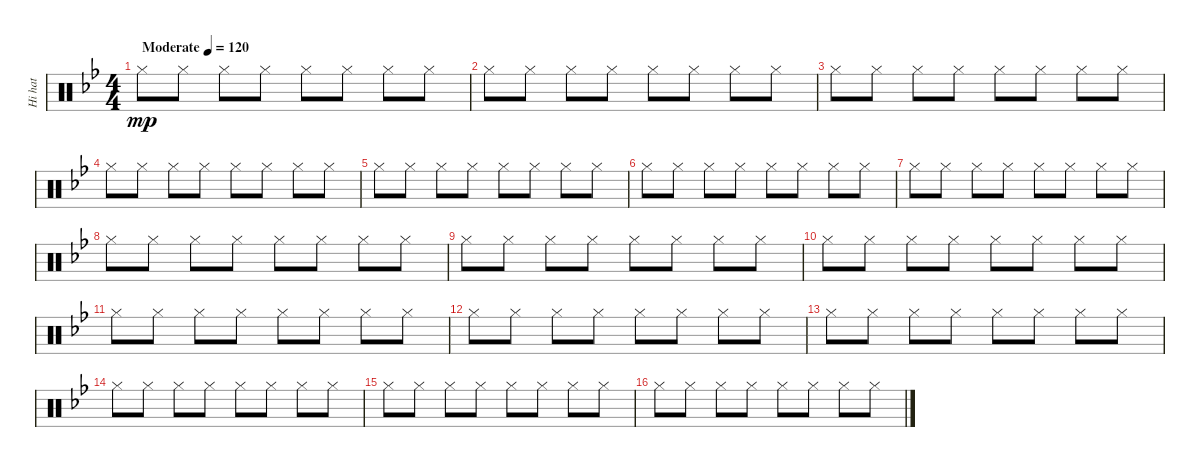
\track ("Hi hat" "Hi hat") {instrument percussion}
\staff {score}
\articulation defaults
\ts (4 4)
\tempo (120 "Moderate")
\clef neutral
\ks bb "Hi-Hat (closed)".8{dy mp} "Hi-Hat (closed)".8 "Hi-Hat (closed)".8 "Hi-Hat (closed)".8 "Hi-Hat (closed)".8 "Hi-Hat (closed)".8 "Hi-Hat (closed)".8 "Hi-Hat (closed)".8
|
"Hi-Hat (closed)".8 "Hi-Hat (closed)".8 "Hi-Hat (closed)".8 "Hi-Hat (closed)".8 "Hi-Hat (closed)".8 "Hi-Hat (closed)".8 "Hi-Hat (closed)".8 "Hi-Hat (closed)".8 |
"Hi-Hat (closed)".8 "Hi-Hat (closed)".8 "Hi-Hat (closed)".8 "Hi-Hat (closed)".8 "Hi-Hat (closed)".8 "Hi-Hat (closed)".8 "Hi-Hat (closed)".8 "Hi-Hat (closed)".8 |
"Hi-Hat (closed)".8 "Hi-Hat (closed)".8 "Hi-Hat (closed)".8 "Hi-Hat (closed)".8 "Hi-Hat (closed)".8 "Hi-Hat (closed)".8 "Hi-Hat (closed)".8 "Hi-Hat (closed)".8 |
"Hi-Hat (closed)".8 "Hi-Hat (closed)".8 "Hi-Hat (closed)".8 "Hi-Hat (closed)".8 "Hi-Hat (closed)".8 "Hi-Hat (closed)".8 "Hi-Hat (closed)".8 "Hi-Hat (closed)".8 |
"Hi-Hat (closed)".8 "Hi-Hat (closed)".8 "Hi-Hat (closed)".8 "Hi-Hat (closed)".8 "Hi-Hat (closed)".8 "Hi-Hat (closed)".8 "Hi-Hat (closed)".8 "Hi-Hat (closed)".8 |
"Hi-Hat (closed)".8 "Hi-Hat (closed)".8 "Hi-Hat (closed)".8 "Hi-Hat (closed)".8 "Hi-Hat (closed)".8 "Hi-Hat (closed)".8 "Hi-Hat (closed)".8 "Hi-Hat (closed)".8 |
"Hi-Hat (closed)".8 "Hi-Hat (closed)".8 "Hi-Hat (closed)".8 "Hi-Hat (closed)".8 "Hi-Hat (closed)".8 "Hi-Hat (closed)".8 "Hi-Hat (closed)".8 "Hi-Hat (closed)".8 |
"Hi-Hat (closed)".8 "Hi-Hat (closed)".8 "Hi-Hat (closed)".8 "Hi-Hat (closed)".8 "Hi-Hat (closed)".8 "Hi-Hat (closed)".8 "Hi-Hat (closed)".8 "Hi-Hat (closed)".8 |
"Hi-Hat (closed)".8 "Hi-Hat (closed)".8 "Hi-Hat (closed)".8 "Hi-Hat (closed)".8 "Hi-Hat (closed)".8 "Hi-Hat (closed)".8 "Hi-Hat (closed)".8 "Hi-Hat (closed)".8 |
"Hi-Hat (closed)".8 "Hi-Hat (closed)".8 "Hi-Hat (closed)".8 "Hi-Hat (closed)".8 "Hi-Hat (closed)".8 "Hi-Hat (closed)".8 "Hi-Hat (closed)".8 "Hi-Hat (closed)".8 |
"Hi-Hat (closed)".8 "Hi-Hat (closed)".8 "Hi-Hat (closed)".8 "Hi-Hat (closed)".8 "Hi-Hat (closed)".8 "Hi-Hat (closed)".8 "Hi-Hat (closed)".8 "Hi-Hat (closed)".8 |
"Hi-Hat (closed)".8 "Hi-Hat (closed)".8 "Hi-Hat (closed)".8 "Hi-Hat (closed)".8 "Hi-Hat (closed)".8 "Hi-Hat (closed)".8 "Hi-Hat (closed)".8 "Hi-Hat (closed)".8 |
"Hi-Hat (closed)".8 "Hi-Hat (closed)".8 "Hi-Hat (closed)".8 "Hi-Hat (closed)".8 "Hi-Hat (closed)".8 "Hi-Hat (closed)".8 "Hi-Hat (closed)".8 "Hi-Hat (closed)".8 |
"Hi-Hat (closed)".8 "Hi-Hat (closed)".8 "Hi-Hat (closed)".8 "Hi-Hat (closed)".8 "Hi-Hat (closed)".8 "Hi-Hat (closed)".8 "Hi-Hat (closed)".8 "Hi-Hat (closed)".8 |
"Hi-Hat (closed)".8 "Hi-Hat (closed)".8 "Hi-Hat (closed)".8 "Hi-Hat (closed)".8 "Hi-Hat (closed)".8 "Hi-Hat (closed)".8 "Hi-Hat (closed)".8 "Hi-Hat (closed)".8
